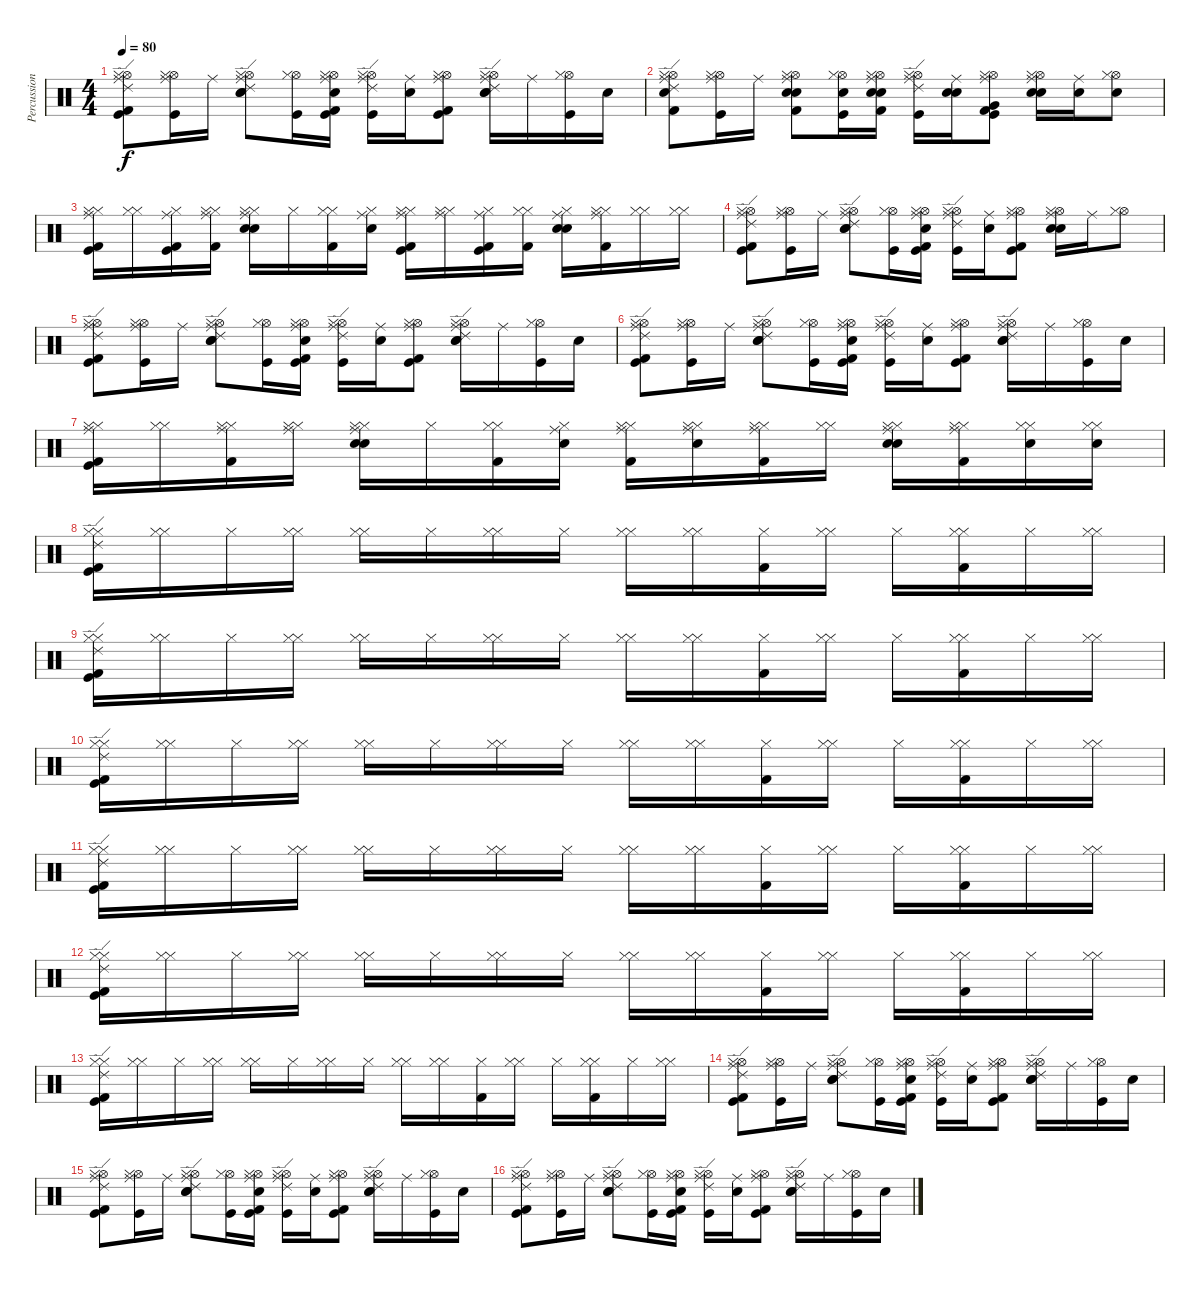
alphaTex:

\track ("Percussions" "Percussion") {instrument percussion}
\staff {score}
\articulation defaults
\ts (4 4)
\tempo 80
\clef neutral
\ks c
("Hi-Hat (open)" "Hi-Hat (closed)" "Ride (middle)" "Ride (edge) 2" "Kick (hit)" "Kick (hit) 2").8{dy f} ("Hi-Hat (open)" "Hi-Hat (closed)" "Ride (middle)" "Kick (hit)").16 "Ride (middle)".16 ("Electric Snare (hit)" "Hi-Hat (open)" "Snare (hit) 2" "Hi-Hat (closed)" "Ride (middle)" "Ride (edge) 2").8 ("Hi-Hat (open)" "Hi-Hat (closed)" "Kick (hit)").16 ("Hi-Hat (open)" "Hi-Hat (closed)" "Ride (middle)" "Snare (hit) 2" "Kick (hit)" "Kick (hit) 2").16 ("Hi-Hat (open)" "Hi-Hat (closed)" "Ride (middle)" "Kick (hit)" "Ride (edge) 2").16 ("Ride (middle)" "Snare (hit) 2").16 ("Hi-Hat (open)" "Hi-Hat (closed)" "Ride (middle)" "Kick (hit)" "Kick (hit) 2").8 ("Electric Snare (hit)" "Hi-Hat (open)" "Snare (hit) 2" "Hi-Hat (closed)" "Ride (middle)" "Ride (edge) 2").16 "Ride (middle)".16 ("Hi-Hat (open)" "Hi-Hat (closed)" "Kick (hit)").16 "Snare (hit) 2".16 |
("Hi-Hat (open)" "Hi-Hat (closed)" "Ride (middle)" "Electric Snare (hit)" "Ride (edge) 2" "Kick (hit) 2").8 ("Hi-Hat (open)" "Hi-Hat (closed)" "Ride (middle)" "Kick (hit)").16 "Ride (middle)".16 ("Electric Snare (hit)" "Hi-Hat (open)" "Snare (hit) 2" "Hi-Hat (closed)" "Ride (middle)" "Kick (hit) 2").8 ("Hi-Hat (open)" "Hi-Hat (closed)" "Electric Snare (hit)" "Kick (hit)").16 ("Hi-Hat (open)" "Hi-Hat (closed)" "Ride (middle)" "Electric Snare (hit)" "Snare (hit) 2" "Kick (hit) 2").16 ("Hi-Hat (open)" "Hi-Hat (closed)" "Ride (middle)" "Kick (hit)" "Ride (edge) 2").16 ("Ride (middle)" "Electric Snare (hit)" "Snare (hit) 2").16 ("Hi-Hat (open)" "Hi-Hat (closed)" "Ride (middle)" "Very Low Tom (hit)" "Kick (hit)" "Kick (hit) 2").8 ("Electric Snare (hit)" "Hi-Hat (open)" "Snare (hit) 2" "Hi-Hat (closed)" "Ride (middle)").16 ("Ride (middle)" "Electric Snare (hit)").16 ("Hi-Hat (open)" "Hi-Hat (closed)" "Electric Snare (hit)").8 |
("Ride (middle)" "Hi-Hat (closed)" "Hi-Hat (closed)" "Kick (hit)" "Kick (hit) 2").16 ("Hi-Hat (closed)" "Hi-Hat (closed)").16 ("Hi-Hat (closed)" "Ride (middle)" "Kick (hit)" "Kick (hit) 2").16 ("Hi-Hat (closed)" "Hi-Hat (closed)" "Ride (middle)" "Kick (hit) 2").16 ("Snare (hit) 2" "Electric Snare (hit)" "Hi-Hat (closed)" "Hi-Hat (closed)" "Ride (middle)").16 "Hi-Hat (closed)".16 ("Hi-Hat (closed)" "Hi-Hat (closed)" "Kick (hit) 2").16 ("Electric Snare (hit)" "Hi-Hat (closed)" "Ride (middle)").16 ("Hi-Hat (closed)" "Hi-Hat (closed)" "Ride (middle)" "Kick (hit)" "Kick (hit) 2").16 ("Hi-Hat (closed)" "Hi-Hat (closed)" "Ride (middle)").16 ("Hi-Hat (closed)" "Ride (middle)" "Kick (hit) 2" "Kick (hit)").16 ("Hi-Hat (closed)" "Hi-Hat (closed)" "Kick (hit) 2").16 ("Snare (hit) 2" "Electric Snare (hit)" "Hi-Hat (closed)" "Ride (middle)").16 ("Hi-Hat (closed)" "Hi-Hat (closed)" "Ride (middle)" "Kick (hit) 2").16 ("Hi-Hat (closed)" "Hi-Hat (closed)").16 ("Hi-Hat (closed)" "Hi-Hat (closed)").16 |
("Hi-Hat (open)" "Hi-Hat (closed)" "Ride (middle)" "Ride (edge) 2" "Kick (hit)" "Kick (hit) 2").8 ("Hi-Hat (open)" "Hi-Hat (closed)" "Ride (middle)" "Kick (hit)").16 "Ride (middle)".16 ("Electric Snare (hit)" "Hi-Hat (open)" "Snare (hit) 2" "Hi-Hat (closed)" "Ride (middle)" "Ride (edge) 2").8 ("Hi-Hat (open)" "Hi-Hat (closed)" "Kick (hit)").16 ("Hi-Hat (open)" "Hi-Hat (closed)" "Ride (middle)" "Snare (hit) 2" "Kick (hit)" "Kick (hit) 2").16 ("Hi-Hat (open)" "Hi-Hat (closed)" "Ride (middle)" "Kick (hit)" "Ride (edge) 2").16 ("Ride (middle)" "Snare (hit) 2").16 ("Hi-Hat (open)" "Hi-Hat (closed)" "Ride (middle)" "Kick (hit)" "Kick (hit) 2").8 ("Electric Snare (hit)" "Hi-Hat (open)" "Snare (hit) 2" "Hi-Hat (closed)" "Ride (middle)").16 "Ride (middle)".16 ("Hi-Hat (open)" "Hi-Hat (closed)").8 |
("Hi-Hat (open)" "Hi-Hat (closed)" "Ride (middle)" "Ride (edge) 2" "Kick (hit)" "Kick (hit) 2").8 ("Hi-Hat (open)" "Hi-Hat (closed)" "Ride (middle)" "Kick (hit)").16 "Ride (middle)".16 ("Electric Snare (hit)" "Hi-Hat (open)" "Snare (hit) 2" "Hi-Hat (closed)" "Ride (middle)" "Ride (edge) 2").8 ("Hi-Hat (open)" "Hi-Hat (closed)" "Kick (hit)").16 ("Hi-Hat (open)" "Hi-Hat (closed)" "Ride (middle)" "Snare (hit) 2" "Kick (hit)" "Kick (hit) 2").16 ("Hi-Hat (open)" "Hi-Hat (closed)" "Ride (middle)" "Kick (hit)" "Ride (edge) 2").16 ("Ride (middle)" "Snare (hit) 2").16 ("Hi-Hat (open)" "Hi-Hat (closed)" "Ride (middle)" "Kick (hit)" "Kick (hit) 2").8 ("Electric Snare (hit)" "Hi-Hat (open)" "Snare (hit) 2" "Hi-Hat (closed)" "Ride (middle)" "Ride (edge) 2").16 "Ride (middle)".16 ("Hi-Hat (open)" "Hi-Hat (closed)" "Kick (hit)").16 "Snare (hit) 2".16 |
("Hi-Hat (open)" "Hi-Hat (closed)" "Ride (middle)" "Ride (edge) 2" "Kick (hit)" "Kick (hit) 2").8 ("Hi-Hat (open)" "Hi-Hat (closed)" "Ride (middle)" "Kick (hit)").16 "Ride (middle)".16 ("Electric Snare (hit)" "Hi-Hat (open)" "Snare (hit) 2" "Hi-Hat (closed)" "Ride (middle)" "Ride (edge) 2").8 ("Hi-Hat (open)" "Hi-Hat (closed)" "Kick (hit)").16 ("Hi-Hat (open)" "Hi-Hat (closed)" "Ride (middle)" "Snare (hit) 2" "Kick (hit)" "Kick (hit) 2").16 ("Hi-Hat (open)" "Hi-Hat (closed)" "Ride (middle)" "Kick (hit)" "Ride (edge) 2").16 ("Ride (middle)" "Snare (hit) 2").16 ("Hi-Hat (open)" "Hi-Hat (closed)" "Ride (middle)" "Kick (hit)" "Kick (hit) 2").8 ("Electric Snare (hit)" "Hi-Hat (open)" "Snare (hit) 2" "Hi-Hat (closed)" "Ride (middle)" "Ride (edge) 2").16 "Ride (middle)".16 ("Hi-Hat (open)" "Hi-Hat (closed)" "Kick (hit)").16 "Snare (hit) 2".16 |
("Hi-Hat (closed)" "Hi-Hat (closed)" "Ride (middle)" "Kick (hit) 2" "Kick (hit)").16 ("Hi-Hat (closed)" "Hi-Hat (closed)").16 ("Hi-Hat (closed)" "Ride (middle)" "Hi-Hat (closed)" "Kick (hit) 2").16 ("Hi-Hat (closed)" "Hi-Hat (closed)" "Ride (middle)").16 ("Snare (hit) 2" "Electric Snare (hit)" "Hi-Hat (closed)" "Hi-Hat (closed)" "Ride (middle)").16 "Hi-Hat (closed)".16 ("Hi-Hat (closed)" "Hi-Hat (closed)" "Kick (hit) 2").16 ("Electric Snare (hit)" "Hi-Hat (closed)" "Ride (middle)").16 ("Hi-Hat (closed)" "Hi-Hat (closed)" "Ride (middle)" "Kick (hit) 2").16 ("Hi-Hat (closed)" "Hi-Hat (closed)" "Ride (middle)" "Electric Snare (hit)").16 ("Hi-Hat (closed)" "Ride (middle)" "Hi-Hat (closed)" "Kick (hit) 2").16 ("Hi-Hat (closed)" "Hi-Hat (closed)").16 ("Snare (hit) 2" "Electric Snare (hit)" "Hi-Hat (closed)" "Ride (middle)" "Hi-Hat (closed)").16 ("Hi-Hat (closed)" "Hi-Hat (closed)" "Ride (middle)" "Kick (hit) 2").16 ("Hi-Hat (closed)" "Hi-Hat (closed)" "Electric Snare (hit)").16 ("Hi-Hat (closed)" "Hi-Hat (closed)" "Electric Snare (hit)").16 |
("Hi-Hat (closed)" "Hi-Hat (closed)" "Ride (edge) 2" "Kick (hit) 2" "Kick (hit)").16 ("Hi-Hat (closed)" "Hi-Hat (closed)").16 "Hi-Hat (closed)".16 ("Hi-Hat (closed)" "Hi-Hat (closed)").16 ("Hi-Hat (closed)" "Hi-Hat (closed)").16 "Hi-Hat (closed)".16 ("Hi-Hat (closed)" "Hi-Hat (closed)").16 "Hi-Hat (closed)".16 ("Hi-Hat (closed)" "Hi-Hat (closed)").16 ("Hi-Hat (closed)" "Hi-Hat (closed)").16 ("Hi-Hat (closed)" "Kick (hit) 2").16 ("Hi-Hat (closed)" "Hi-Hat (closed)").16 "Hi-Hat (closed)".16 ("Hi-Hat (closed)" "Hi-Hat (closed)" "Kick (hit) 2").16 "Hi-Hat (closed)".16 ("Hi-Hat (closed)" "Hi-Hat (closed)").16 |
("Hi-Hat (closed)" "Hi-Hat (closed)" "Ride (edge) 2" "Kick (hit) 2" "Kick (hit)").16 ("Hi-Hat (closed)" "Hi-Hat (closed)").16 "Hi-Hat (closed)".16 ("Hi-Hat (closed)" "Hi-Hat (closed)").16 ("Hi-Hat (closed)" "Hi-Hat (closed)").16 "Hi-Hat (closed)".16 ("Hi-Hat (closed)" "Hi-Hat (closed)").16 "Hi-Hat (closed)".16 ("Hi-Hat (closed)" "Hi-Hat (closed)").16 ("Hi-Hat (closed)" "Hi-Hat (closed)").16 ("Hi-Hat (closed)" "Kick (hit) 2").16 ("Hi-Hat (closed)" "Hi-Hat (closed)").16 "Hi-Hat (closed)".16 ("Hi-Hat (closed)" "Hi-Hat (closed)" "Kick (hit) 2").16 "Hi-Hat (closed)".16 ("Hi-Hat (closed)" "Hi-Hat (closed)").16 |
("Hi-Hat (closed)" "Hi-Hat (closed)" "Ride (edge) 2" "Kick (hit) 2" "Kick (hit)").16 ("Hi-Hat (closed)" "Hi-Hat (closed)").16 "Hi-Hat (closed)".16 ("Hi-Hat (closed)" "Hi-Hat (closed)").16 ("Hi-Hat (closed)" "Hi-Hat (closed)").16 "Hi-Hat (closed)".16 ("Hi-Hat (closed)" "Hi-Hat (closed)").16 "Hi-Hat (closed)".16 ("Hi-Hat (closed)" "Hi-Hat (closed)").16 ("Hi-Hat (closed)" "Hi-Hat (closed)").16 ("Hi-Hat (closed)" "Kick (hit) 2").16 ("Hi-Hat (closed)" "Hi-Hat (closed)").16 "Hi-Hat (closed)".16 ("Hi-Hat (closed)" "Hi-Hat (closed)" "Kick (hit) 2").16 "Hi-Hat (closed)".16 ("Hi-Hat (closed)" "Hi-Hat (closed)").16 |
("Hi-Hat (closed)" "Hi-Hat (closed)" "Ride (edge) 2" "Kick (hit) 2" "Kick (hit)").16 ("Hi-Hat (closed)" "Hi-Hat (closed)").16 "Hi-Hat (closed)".16 ("Hi-Hat (closed)" "Hi-Hat (closed)").16 ("Hi-Hat (closed)" "Hi-Hat (closed)").16 "Hi-Hat (closed)".16 ("Hi-Hat (closed)" "Hi-Hat (closed)").16 "Hi-Hat (closed)".16 ("Hi-Hat (closed)" "Hi-Hat (closed)").16 ("Hi-Hat (closed)" "Hi-Hat (closed)").16 ("Hi-Hat (closed)" "Kick (hit) 2").16 ("Hi-Hat (closed)" "Hi-Hat (closed)").16 "Hi-Hat (closed)".16 ("Hi-Hat (closed)" "Hi-Hat (closed)" "Kick (hit) 2").16 "Hi-Hat (closed)".16 ("Hi-Hat (closed)" "Hi-Hat (closed)").16 |
("Hi-Hat (closed)" "Hi-Hat (closed)" "Ride (edge) 2" "Kick (hit) 2" "Kick (hit)").16 ("Hi-Hat (closed)" "Hi-Hat (closed)").16 "Hi-Hat (closed)".16 ("Hi-Hat (closed)" "Hi-Hat (closed)").16 ("Hi-Hat (closed)" "Hi-Hat (closed)").16 "Hi-Hat (closed)".16 ("Hi-Hat (closed)" "Hi-Hat (closed)").16 "Hi-Hat (closed)".16 ("Hi-Hat (closed)" "Hi-Hat (closed)").16 ("Hi-Hat (closed)" "Hi-Hat (closed)").16 ("Hi-Hat (closed)" "Kick (hit) 2").16 ("Hi-Hat (closed)" "Hi-Hat (closed)").16 "Hi-Hat (closed)".16 ("Hi-Hat (closed)" "Hi-Hat (closed)" "Kick (hit) 2").16 "Hi-Hat (closed)".16 ("Hi-Hat (closed)" "Hi-Hat (closed)").16 |
("Hi-Hat (closed)" "Hi-Hat (closed)" "Ride (edge) 2" "Kick (hit) 2" "Kick (hit)").16 ("Hi-Hat (closed)" "Hi-Hat (closed)").16 "Hi-Hat (closed)".16 ("Hi-Hat (closed)" "Hi-Hat (closed)").16 ("Hi-Hat (closed)" "Hi-Hat (closed)").16 "Hi-Hat (closed)".16 ("Hi-Hat (closed)" "Hi-Hat (closed)").16 "Hi-Hat (closed)".16 ("Hi-Hat (closed)" "Hi-Hat (closed)").16 ("Hi-Hat (closed)" "Hi-Hat (closed)").16 ("Hi-Hat (closed)" "Kick (hit) 2").16 ("Hi-Hat (closed)" "Hi-Hat (closed)").16 "Hi-Hat (closed)".16 ("Hi-Hat (closed)" "Hi-Hat (closed)" "Kick (hit) 2").16 "Hi-Hat (closed)".16 ("Hi-Hat (closed)" "Hi-Hat (closed)").16 |
("Hi-Hat (open)" "Hi-Hat (closed)" "Ride (middle)" "Ride (edge) 2" "Kick (hit)" "Kick (hit) 2").8 ("Hi-Hat (open)" "Hi-Hat (closed)" "Ride (middle)" "Kick (hit)").16 "Ride (middle)".16 ("Electric Snare (hit)" "Hi-Hat (open)" "Snare (hit) 2" "Hi-Hat (closed)" "Ride (middle)" "Ride (edge) 2").8 ("Hi-Hat (open)" "Hi-Hat (closed)" "Kick (hit)").16 ("Hi-Hat (open)" "Hi-Hat (closed)" "Ride (middle)" "Snare (hit) 2" "Kick (hit)" "Kick (hit) 2").16 ("Hi-Hat (open)" "Hi-Hat (closed)" "Ride (middle)" "Kick (hit)" "Ride (edge) 2").16 ("Ride (middle)" "Snare (hit) 2").16 ("Hi-Hat (open)" "Hi-Hat (closed)" "Ride (middle)" "Kick (hit)" "Kick (hit) 2").8 ("Electric Snare (hit)" "Hi-Hat (open)" "Snare (hit) 2" "Hi-Hat (closed)" "Ride (middle)" "Ride (edge) 2").16 "Ride (middle)".16 ("Hi-Hat (open)" "Hi-Hat (closed)" "Kick (hit)").16 "Snare (hit) 2".16 |
("Hi-Hat (open)" "Hi-Hat (closed)" "Ride (middle)" "Ride (edge) 2" "Kick (hit)" "Kick (hit) 2").8 ("Hi-Hat (open)" "Hi-Hat (closed)" "Ride (middle)" "Kick (hit)").16 "Ride (middle)".16 ("Electric Snare (hit)" "Hi-Hat (open)" "Snare (hit) 2" "Hi-Hat (closed)" "Ride (middle)" "Ride (edge) 2").8 ("Hi-Hat (open)" "Hi-Hat (closed)" "Kick (hit)").16 ("Hi-Hat (open)" "Hi-Hat (closed)" "Ride (middle)" "Snare (hit) 2" "Kick (hit)" "Kick (hit) 2").16 ("Hi-Hat (open)" "Hi-Hat (closed)" "Ride (middle)" "Kick (hit)" "Ride (edge) 2").16 ("Ride (middle)" "Snare (hit) 2").16 ("Hi-Hat (open)" "Hi-Hat (closed)" "Ride (middle)" "Kick (hit)" "Kick (hit) 2").8 ("Electric Snare (hit)" "Hi-Hat (open)" "Snare (hit) 2" "Hi-Hat (closed)" "Ride (middle)" "Ride (edge) 2").16 "Ride (middle)".16 ("Hi-Hat (open)" "Hi-Hat (closed)" "Kick (hit)").16 "Snare (hit) 2".16 |
("Hi-Hat (open)" "Hi-Hat (closed)" "Ride (middle)" "Ride (edge) 2" "Kick (hit)" "Kick (hit) 2").8 ("Hi-Hat (open)" "Hi-Hat (closed)" "Ride (middle)" "Kick (hit)").16 "Ride (middle)".16 ("Electric Snare (hit)" "Hi-Hat (open)" "Snare (hit) 2" "Hi-Hat (closed)" "Ride (middle)" "Ride (edge) 2").8 ("Hi-Hat (open)" "Hi-Hat (closed)" "Kick (hit)").16 ("Hi-Hat (open)" "Hi-Hat (closed)" "Ride (middle)" "Snare (hit) 2" "Kick (hit)" "Kick (hit) 2").16 ("Hi-Hat (open)" "Hi-Hat (closed)" "Ride (middle)" "Kick (hit)" "Ride (edge) 2").16 ("Ride (middle)" "Snare (hit) 2").16 ("Hi-Hat (open)" "Hi-Hat (closed)" "Ride (middle)" "Kick (hit)" "Kick (hit) 2").8 ("Electric Snare (hit)" "Hi-Hat (open)" "Snare (hit) 2" "Hi-Hat (closed)" "Ride (middle)" "Ride (edge) 2").16 "Ride (middle)".16 ("Hi-Hat (open)" "Hi-Hat (closed)" "Kick (hit)").16 "Snare (hit) 2".16
